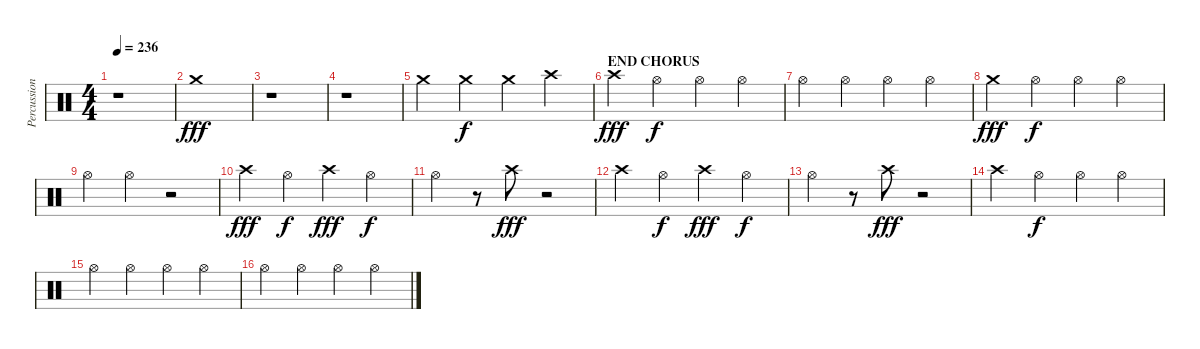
\track ("Percussions" "Percussion") {instrument percussion}
\staff {score}
\articulation defaults
\ts (4 4)
\tempo 236
\clef neutral
\ks c
r.1{dy fff} |
"Crash medium (hit)".1 |
r.1 |
r.1 |
"Crash medium (hit)".4 "Crash medium (hit)".4{dy f} "Crash medium (hit)".4 "Crash high (hit)".4 |
\section ("" "END CHORUS")
"Crash high (hit)".4{dy fff} "Hi-Hat (open)".4{dy f} "Hi-Hat (open)".4 "Hi-Hat (open)".4 |
"Hi-Hat (open)".4 "Hi-Hat (open)".4 "Hi-Hat (open)".4 "Hi-Hat (open)".4 |
"Crash medium (hit)".4{dy fff} "Hi-Hat (open)".4{dy f} "Hi-Hat (open)".4 "Hi-Hat (open)".4 |
"Hi-Hat (open)".4 "Hi-Hat (open)".4 r.2 |
"Crash high (hit)".4{dy fff} "Hi-Hat (open)".4{dy f} "Crash high (hit)".4{dy fff} "Hi-Hat (open)".4{dy f} |
"Hi-Hat (open)".4 r.8 "Crash high (hit)".8{dy fff} r.2 |
"Crash high (hit)".4 "Hi-Hat (open)".4{dy f} "Crash high (hit)".4{dy fff} "Hi-Hat (open)".4{dy f} |
"Hi-Hat (open)".4 r.8 "Crash high (hit)".8{dy fff} r.2 |
"Crash high (hit)".4 "Hi-Hat (open)".4{dy f} "Hi-Hat (open)".4 "Hi-Hat (open)".4 |
"Hi-Hat (open)".4 "Hi-Hat (open)".4 "Hi-Hat (open)".4 "Hi-Hat (open)".4 |
"Hi-Hat (open)".4 "Hi-Hat (open)".4 "Hi-Hat (open)".4 "Hi-Hat (open)".4
